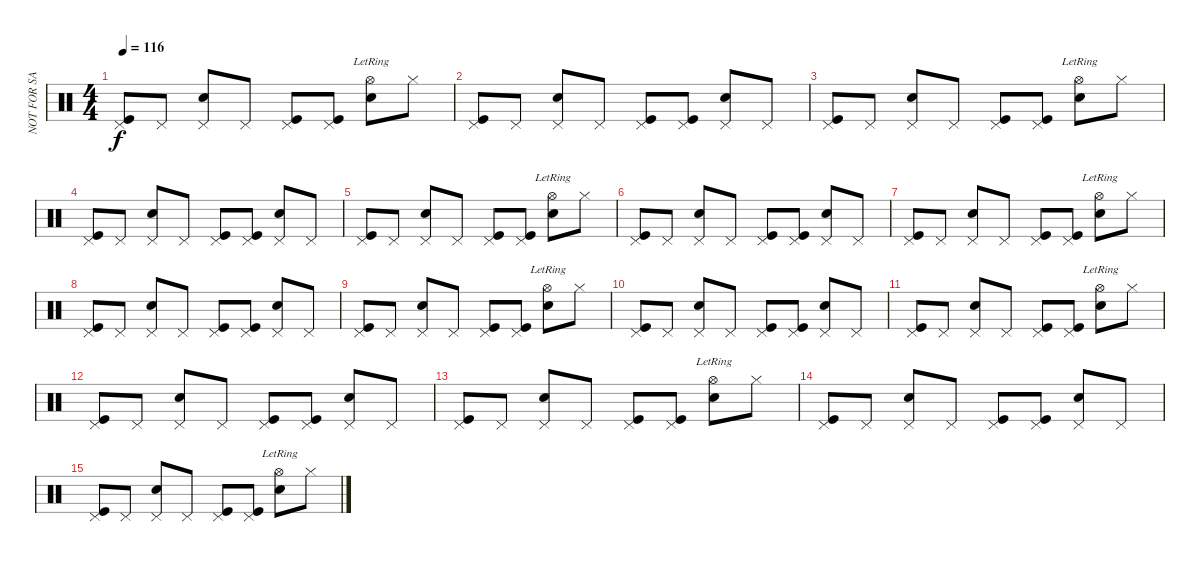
\track ("NOT FOR SALE OR PROFIT" "NOT FOR SA") {instrument percussion}
\staff {score}
\articulation defaults
\ts (4 4)
\tempo 116
\clef neutral
\ks c
("Pedal Hi-Hat (hit)" "Kick (hit)").8{dy f} "Pedal Hi-Hat (hit)".8 ("Pedal Hi-Hat (hit)" "Snare (hit) 2").8 "Pedal Hi-Hat (hit)".8 ("Pedal Hi-Hat (hit)" "Kick (hit)").8 ("Pedal Hi-Hat (hit)" "Kick (hit)").8 ("Hi-Hat (open)"{lr} "Snare (hit) 2").8 "Hi-Hat (closed)".8 |
("Pedal Hi-Hat (hit)" "Kick (hit)").8 "Pedal Hi-Hat (hit)".8 ("Pedal Hi-Hat (hit)" "Snare (hit) 2").8 "Pedal Hi-Hat (hit)".8 ("Pedal Hi-Hat (hit)" "Kick (hit)").8 ("Pedal Hi-Hat (hit)" "Kick (hit)").8 ("Pedal Hi-Hat (hit)" "Snare (hit) 2").8 "Pedal Hi-Hat (hit)".8 |
("Pedal Hi-Hat (hit)" "Kick (hit)").8 "Pedal Hi-Hat (hit)".8 ("Pedal Hi-Hat (hit)" "Snare (hit) 2").8 "Pedal Hi-Hat (hit)".8 ("Pedal Hi-Hat (hit)" "Kick (hit)").8 ("Pedal Hi-Hat (hit)" "Kick (hit)").8 ("Hi-Hat (open)"{lr} "Snare (hit) 2").8 "Hi-Hat (closed)".8 |
("Pedal Hi-Hat (hit)" "Kick (hit)").8 "Pedal Hi-Hat (hit)".8 ("Pedal Hi-Hat (hit)" "Snare (hit) 2").8 "Pedal Hi-Hat (hit)".8 ("Pedal Hi-Hat (hit)" "Kick (hit)").8 ("Pedal Hi-Hat (hit)" "Kick (hit)").8 ("Pedal Hi-Hat (hit)" "Snare (hit) 2").8 "Pedal Hi-Hat (hit)".8 |
("Pedal Hi-Hat (hit)" "Kick (hit)").8 "Pedal Hi-Hat (hit)".8 ("Pedal Hi-Hat (hit)" "Snare (hit) 2").8 "Pedal Hi-Hat (hit)".8 ("Pedal Hi-Hat (hit)" "Kick (hit)").8 ("Pedal Hi-Hat (hit)" "Kick (hit)").8 ("Hi-Hat (open)"{lr} "Snare (hit) 2").8 "Hi-Hat (closed)".8 |
("Pedal Hi-Hat (hit)" "Kick (hit)").8 "Pedal Hi-Hat (hit)".8 ("Pedal Hi-Hat (hit)" "Snare (hit) 2").8 "Pedal Hi-Hat (hit)".8 ("Pedal Hi-Hat (hit)" "Kick (hit)").8 ("Pedal Hi-Hat (hit)" "Kick (hit)").8 ("Pedal Hi-Hat (hit)" "Snare (hit) 2").8 "Pedal Hi-Hat (hit)".8 |
("Pedal Hi-Hat (hit)" "Kick (hit)").8 "Pedal Hi-Hat (hit)".8 ("Pedal Hi-Hat (hit)" "Snare (hit) 2").8 "Pedal Hi-Hat (hit)".8 ("Pedal Hi-Hat (hit)" "Kick (hit)").8 ("Pedal Hi-Hat (hit)" "Kick (hit)").8 ("Hi-Hat (open)"{lr} "Snare (hit) 2").8 "Hi-Hat (closed)".8 |
("Pedal Hi-Hat (hit)" "Kick (hit)").8{volume 11} "Pedal Hi-Hat (hit)".8 ("Pedal Hi-Hat (hit)" "Snare (hit) 2").8 "Pedal Hi-Hat (hit)".8 ("Pedal Hi-Hat (hit)" "Kick (hit)").8 ("Pedal Hi-Hat (hit)" "Kick (hit)").8 ("Pedal Hi-Hat (hit)" "Snare (hit) 2").8 "Pedal Hi-Hat (hit)".8 |
("Pedal Hi-Hat (hit)" "Kick (hit)").8{volume 10} "Pedal Hi-Hat (hit)".8 ("Pedal Hi-Hat (hit)" "Snare (hit) 2").8 "Pedal Hi-Hat (hit)".8 ("Pedal Hi-Hat (hit)" "Kick (hit)").8 ("Pedal Hi-Hat (hit)" "Kick (hit)").8 ("Hi-Hat (open)"{lr} "Snare (hit) 2").8 "Hi-Hat (closed)".8 |
("Pedal Hi-Hat (hit)" "Kick (hit)").8{volume 8} "Pedal Hi-Hat (hit)".8 ("Pedal Hi-Hat (hit)" "Snare (hit) 2").8 "Pedal Hi-Hat (hit)".8 ("Pedal Hi-Hat (hit)" "Kick (hit)").8 ("Pedal Hi-Hat (hit)" "Kick (hit)").8 ("Pedal Hi-Hat (hit)" "Snare (hit) 2").8 "Pedal Hi-Hat (hit)".8 |
("Pedal Hi-Hat (hit)" "Kick (hit)").8{volume 6} "Pedal Hi-Hat (hit)".8 ("Pedal Hi-Hat (hit)" "Snare (hit) 2").8 "Pedal Hi-Hat (hit)".8 ("Pedal Hi-Hat (hit)" "Kick (hit)").8 ("Pedal Hi-Hat (hit)" "Kick (hit)").8 ("Hi-Hat (open)"{lr} "Snare (hit) 2").8 "Hi-Hat (closed)".8 |
("Pedal Hi-Hat (hit)" "Kick (hit)").8{volume 5} "Pedal Hi-Hat (hit)".8 ("Pedal Hi-Hat (hit)" "Snare (hit) 2").8 "Pedal Hi-Hat (hit)".8 ("Pedal Hi-Hat (hit)" "Kick (hit)").8 ("Pedal Hi-Hat (hit)" "Kick (hit)").8 ("Pedal Hi-Hat (hit)" "Snare (hit) 2").8 "Pedal Hi-Hat (hit)".8 |
("Pedal Hi-Hat (hit)" "Kick (hit)").8{volume 3} "Pedal Hi-Hat (hit)".8 ("Pedal Hi-Hat (hit)" "Snare (hit) 2").8 "Pedal Hi-Hat (hit)".8 ("Pedal Hi-Hat (hit)" "Kick (hit)").8 ("Pedal Hi-Hat (hit)" "Kick (hit)").8 ("Hi-Hat (open)"{lr} "Snare (hit) 2").8 "Hi-Hat (closed)".8 |
("Pedal Hi-Hat (hit)" "Kick (hit)").8{volume 2} "Pedal Hi-Hat (hit)".8 ("Pedal Hi-Hat (hit)" "Snare (hit) 2").8 "Pedal Hi-Hat (hit)".8 ("Pedal Hi-Hat (hit)" "Kick (hit)").8 ("Pedal Hi-Hat (hit)" "Kick (hit)").8 ("Pedal Hi-Hat (hit)" "Snare (hit) 2").8 "Pedal Hi-Hat (hit)".8 |
("Pedal Hi-Hat (hit)" "Kick (hit)").8 "Pedal Hi-Hat (hit)".8 ("Pedal Hi-Hat (hit)" "Snare (hit) 2").8 "Pedal Hi-Hat (hit)".8 ("Pedal Hi-Hat (hit)" "Kick (hit)").8 ("Pedal Hi-Hat (hit)" "Kick (hit)").8 ("Hi-Hat (open)"{lr} "Snare (hit) 2").8 "Hi-Hat (closed)".8
